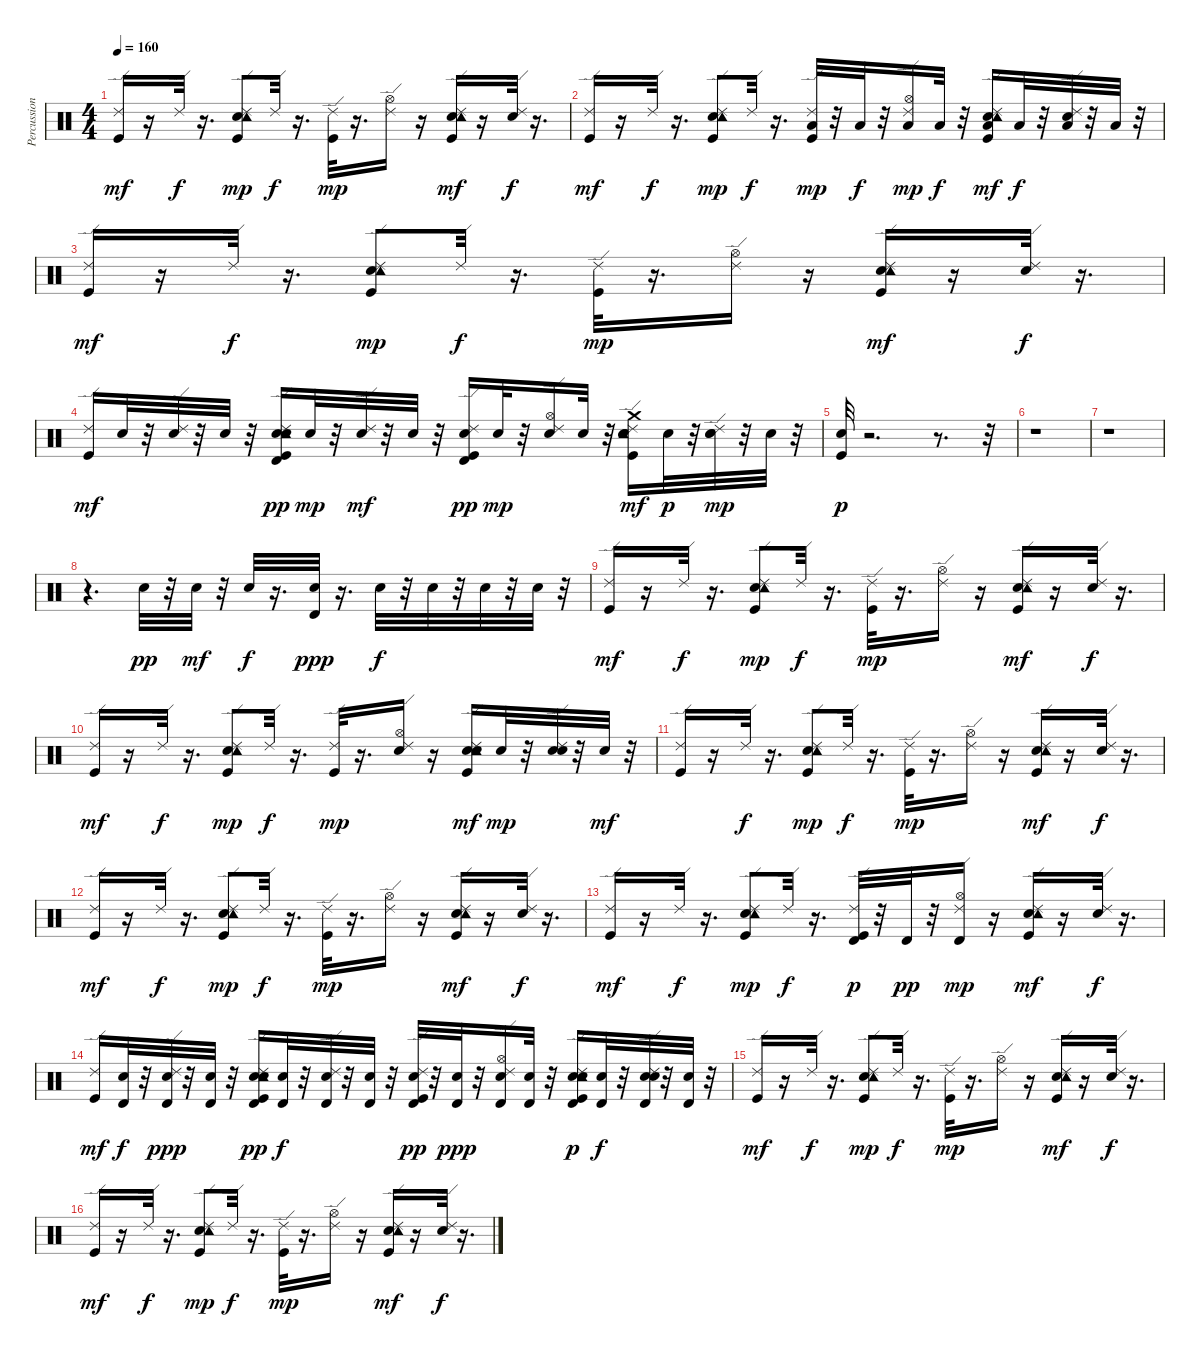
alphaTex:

\track ("Percussion" "Percussion") {instrument percussion}
\staff {score}
\articulation defaults
\ts (4 4)
\tempo 160
\clef neutral
\ks c
("Kick (hit)" "Ride (edge) 2").16{dy mf} r.16 "Ride (edge) 2".32{dy f} r.16{d} ("Kick (hit)" "Electric Snare (hit)" "Tambourine (hit)" "Ride (edge) 2").8{dy mp} "Ride (edge) 2".32{dy f} r.16{d} ("Kick (hit)" "Ride (edge) 2").32{dy mp} r.16{d} ("Hi-Hat (open)" "Ride (edge) 2").16 r.16 ("Kick (hit)" "Electric Snare (hit)" "Tambourine (hit)" "Ride (edge) 2").16{dy mf} r.16 ("Electric Snare (hit)" "Ride (edge) 2").32{dy f} r.16{d} |
("Kick (hit)" "Ride (edge) 2").16{dy mf} r.16 "Ride (edge) 2".32{dy f} r.16{d} ("Kick (hit)" "Electric Snare (hit)" "Tambourine (hit)" "Ride (edge) 2").8{dy mp} "Ride (edge) 2".32{dy f} r.16{d} ("Kick (hit)" "Low Floor Tom (hit)" "Ride (edge) 2").32{dy mp} r.32 "Low Floor Tom (hit)".32{dy f} r.32 ("Low Floor Tom (hit)" "Hi-Hat (open)" "Ride (edge) 2").16{dy mp} "Low Floor Tom (hit)".32{dy f} r.32 ("Kick (hit)" "Electric Snare (hit)" "Low Tom (hit)" "Tambourine (hit)" "Ride (edge) 2").16{dy mf} "Low Tom (hit)".32{dy f} r.32 ("Electric Snare (hit)" "Low Tom (hit)" "Ride (edge) 2").32 r.32 "Low Tom (hit)".32 r.32 |
("Kick (hit)" "Ride (edge) 2").16{dy mf} r.16 "Ride (edge) 2".32{dy f} r.16{d} ("Kick (hit)" "Electric Snare (hit)" "Tambourine (hit)" "Ride (edge) 2").8{dy mp} "Ride (edge) 2".32{dy f} r.16{d} ("Kick (hit)" "Ride (edge) 2").32{dy mp} r.16{d} ("Hi-Hat (open)" "Ride (edge) 2").16 r.16 ("Kick (hit)" "Electric Snare (hit)" "Tambourine (hit)" "Ride (edge) 2").16{dy mf} r.16 ("Electric Snare (hit)" "Ride (edge) 2").32{dy f} r.16{d} |
("Kick (hit)" "Ride (edge) 2").16{dy mf} "Snare (hit) 2".32 r.32 ("Snare (hit) 2" "Ride (edge) 2").32 r.32 "Snare (hit) 2".32 r.32 ("Kick (hit)" "Snare (hit) 2" "Electric Snare (hit)" "Tambourine (hit)" "Ride (edge) 2" "Timbale high (hit)").16{dy pp} "Snare (hit) 2".32{dy mp} r.32 ("Snare (hit) 2" "Ride (edge) 2").32{dy mf} r.32 "Snare (hit) 2".32 r.32 ("Kick (hit)" "Snare (hit) 2" "Ride (edge) 2" "Timbale high (hit)").16{dy pp} "Snare (hit) 2".32{dy mp} r.32 ("Snare (hit) 2" "Hi-Hat (open)" "Ride (edge) 2").16 "Snare (hit) 2".32 r.32 ("Kick (hit)" "Snare (hit) 2" "Electric Snare (hit)" "Tambourine (hit)" "Crash medium (hit)" "Ride (edge) 2").16{dy mf} "Snare (hit) 2".32{dy p} r.32 ("Snare (hit) 2" "Electric Snare (hit)" "Ride (edge) 2").32{dy mp} r.32 "Snare (hit) 2".32 r.32 |
("Kick (hit)" "Electric Snare (hit)").32{dy p} r.2{d} r.8{d} r.32 |
r.1 |
r.1 |
r.4{d} "Snare (hit) 2".32{dy pp} r.32 "Snare (hit) 2".32{dy mf} r.32 "Snare (hit) 2".32{dy f} r.16{d} ("Snare (hit) 2" "Timbale high (hit)").32{dy ppp} r.16{d} "Snare (hit) 2".32{dy f} r.32 "Snare (hit) 2".32 r.32 "Snare (hit) 2".32 r.32 "Snare (hit) 2".32 r.32 |
("Kick (hit)" "Ride (edge) 2").16{dy mf} r.16 "Ride (edge) 2".32{dy f} r.16{d} ("Kick (hit)" "Electric Snare (hit)" "Tambourine (hit)" "Ride (edge) 2").8{dy mp} "Ride (edge) 2".32{dy f} r.16{d} ("Kick (hit)" "Ride (edge) 2").32{dy mp} r.16{d} ("Hi-Hat (open)" "Ride (edge) 2").16 r.16 ("Kick (hit)" "Electric Snare (hit)" "Tambourine (hit)" "Ride (edge) 2").16{dy mf} r.16 ("Electric Snare (hit)" "Ride (edge) 2").32{dy f} r.16{d} |
("Kick (hit)" "Ride (edge) 2").16{dy mf} r.16 "Ride (edge) 2".32{dy f} r.16{d} ("Kick (hit)" "Electric Snare (hit)" "Tambourine (hit)" "Ride (edge) 2").8{dy mp} "Ride (edge) 2".32{dy f} r.16{d} ("Kick (hit)" "Ride (edge) 2").32{dy mp} r.16{d} ("Snare (hit) 2" "Hi-Hat (open)" "Ride (edge) 2").16 r.16 ("Kick (hit)" "Snare (hit) 2" "Electric Snare (hit)" "Tambourine (hit)" "Ride (edge) 2").16{dy mf} "Snare (hit) 2".32{dy mp} r.32 ("Snare (hit) 2" "Electric Snare (hit)" "Ride (edge) 2").32 r.32 "Snare (hit) 2".32{dy mf} r.32 |
("Kick (hit)" "Ride (edge) 2").16 r.16 "Ride (edge) 2".32{dy f} r.16{d} ("Kick (hit)" "Electric Snare (hit)" "Tambourine (hit)" "Ride (edge) 2").8{dy mp} "Ride (edge) 2".32{dy f} r.16{d} ("Kick (hit)" "Ride (edge) 2").32{dy mp} r.16{d} ("Hi-Hat (open)" "Ride (edge) 2").16 r.16 ("Kick (hit)" "Electric Snare (hit)" "Tambourine (hit)" "Ride (edge) 2").16{dy mf} r.16 ("Electric Snare (hit)" "Ride (edge) 2").32{dy f} r.16{d} |
("Kick (hit)" "Ride (edge) 2").16{dy mf} r.16 "Ride (edge) 2".32{dy f} r.16{d} ("Kick (hit)" "Electric Snare (hit)" "Tambourine (hit)" "Ride (edge) 2").8{dy mp} "Ride (edge) 2".32{dy f} r.16{d} ("Kick (hit)" "Ride (edge) 2").32{dy mp} r.16{d} ("Hi-Hat (open)" "Ride (edge) 2").16 r.16 ("Kick (hit)" "Electric Snare (hit)" "Tambourine (hit)" "Ride (edge) 2").16{dy mf} r.16 ("Electric Snare (hit)" "Ride (edge) 2").32{dy f} r.16{d} |
("Kick (hit)" "Ride (edge) 2").16{dy mf} r.16 "Ride (edge) 2".32{dy f} r.16{d} ("Kick (hit)" "Electric Snare (hit)" "Tambourine (hit)" "Ride (edge) 2").8{dy mp} "Ride (edge) 2".32{dy f} r.16{d} ("Kick (hit)" "Ride (edge) 2" "Timbale high (hit)").32{dy p} r.32 "Timbale high (hit)".32{dy pp} r.32 ("Hi-Hat (open)" "Ride (edge) 2" "Timbale high (hit)").16{dy mp} r.16 ("Kick (hit)" "Electric Snare (hit)" "Tambourine (hit)" "Ride (edge) 2").16{dy mf} r.16 ("Electric Snare (hit)" "Ride (edge) 2").32{dy f} r.16{d} |
("Kick (hit)" "Ride (edge) 2").16{dy mf} ("Snare (hit) 2" "Timbale high (hit)").32{dy f} r.32 ("Snare (hit) 2" "Ride (edge) 2" "Timbale high (hit)").32{dy ppp} r.32 ("Snare (hit) 2" "Timbale high (hit)").32 r.32 ("Kick (hit)" "Snare (hit) 2" "Electric Snare (hit)" "Tambourine (hit)" "Ride (edge) 2" "Timbale high (hit)").16{dy pp} ("Snare (hit) 2" "Timbale high (hit)").32{dy f} r.32 ("Snare (hit) 2" "Ride (edge) 2" "Timbale high (hit)").32 r.32 ("Snare (hit) 2" "Timbale high (hit)").32 r.32 ("Kick (hit)" "Snare (hit) 2" "Ride (edge) 2" "Timbale high (hit)").32{dy pp} r.32 ("Snare (hit) 2" "Timbale high (hit)").32{dy ppp} r.32 ("Snare (hit) 2" "Hi-Hat (open)" "Ride (edge) 2" "Timbale high (hit)").16 ("Snare (hit) 2" "Timbale high (hit)").32 r.32 ("Kick (hit)" "Snare (hit) 2" "Electric Snare (hit)" "Tambourine (hit)" "Ride (edge) 2" "Timbale high (hit)").16{dy p} ("Snare (hit) 2" "Timbale high (hit)").32{dy f} r.32 ("Snare (hit) 2" "Electric Snare (hit)" "Ride (edge) 2" "Timbale high (hit)").32 r.32 ("Snare (hit) 2" "Timbale high (hit)").32 r.32 |
("Kick (hit)" "Ride (edge) 2").16{dy mf} r.16 "Ride (edge) 2".32{dy f} r.16{d} ("Kick (hit)" "Electric Snare (hit)" "Tambourine (hit)" "Ride (edge) 2").8{dy mp} "Ride (edge) 2".32{dy f} r.16{d} ("Kick (hit)" "Ride (edge) 2").32{dy mp} r.16{d} ("Hi-Hat (open)" "Ride (edge) 2").16 r.16 ("Kick (hit)" "Electric Snare (hit)" "Tambourine (hit)" "Ride (edge) 2").16{dy mf} r.16 ("Electric Snare (hit)" "Ride (edge) 2").32{dy f} r.16{d} |
("Kick (hit)" "Ride (edge) 2").16{dy mf} r.16 "Ride (edge) 2".32{dy f} r.16{d} ("Kick (hit)" "Electric Snare (hit)" "Tambourine (hit)" "Ride (edge) 2").8{dy mp} "Ride (edge) 2".32{dy f} r.16{d} ("Kick (hit)" "Ride (edge) 2").32{dy mp} r.16{d} ("Hi-Hat (open)" "Ride (edge) 2").16 r.16 ("Kick (hit)" "Electric Snare (hit)" "Tambourine (hit)" "Ride (edge) 2").16{dy mf} r.16 ("Electric Snare (hit)" "Ride (edge) 2").32{dy f} r.16{d}
